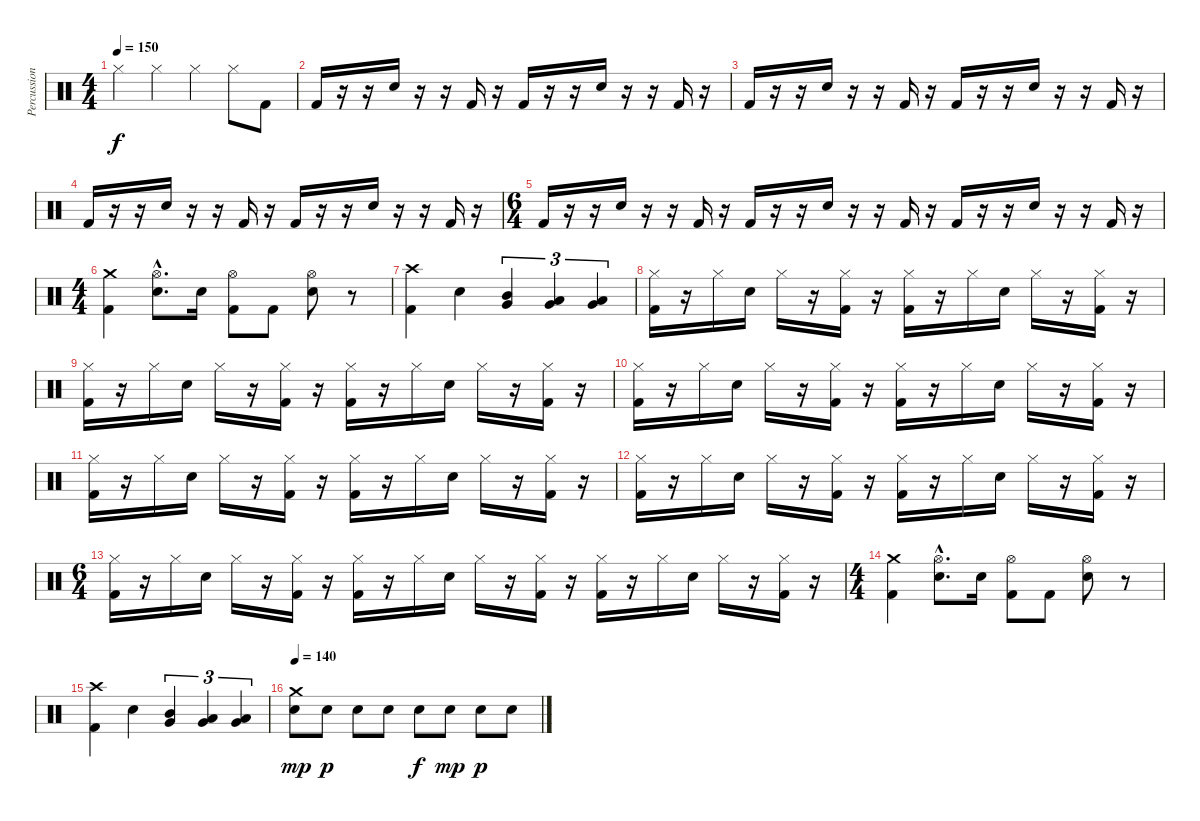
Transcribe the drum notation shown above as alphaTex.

\track ("Percussion" "Percussion") {instrument percussion}
\staff {score}
\articulation defaults
\ts (4 4)
\tempo 150
\clef neutral
\ks c "Hi-Hat (closed)".4{dy f} "Hi-Hat (closed)".4 "Hi-Hat (closed)".4 "Hi-Hat (closed)".8 "Kick (hit) 2".8
|
"Kick (hit) 2".16 r.16 r.16 "Snare (hit) 2".16 r.16 r.16 "Kick (hit) 2".16 r.16 "Kick (hit) 2".16 r.16 r.16 "Snare (hit) 2".16 r.16 r.16 "Kick (hit) 2".16 r.16 |
"Kick (hit) 2".16 r.16 r.16 "Snare (hit) 2".16 r.16 r.16 "Kick (hit) 2".16 r.16 "Kick (hit) 2".16 r.16 r.16 "Snare (hit) 2".16 r.16 r.16 "Kick (hit) 2".16 r.16 |
"Kick (hit) 2".16 r.16 r.16 "Snare (hit) 2".16 r.16 r.16 "Kick (hit) 2".16 r.16 "Kick (hit) 2".16 r.16 r.16 "Snare (hit) 2".16 r.16 r.16 "Kick (hit) 2".16 r.16 |
\ts (6 4)
"Kick (hit) 2".16 r.16 r.16 "Snare (hit) 2".16 r.16 r.16 "Kick (hit) 2".16 r.16 "Kick (hit) 2".16 r.16 r.16 "Snare (hit) 2".16 r.16 r.16 "Kick (hit) 2".16 r.16 "Kick (hit) 2".16 r.16 r.16 "Snare (hit) 2".16 r.16 r.16 "Kick (hit) 2".16 r.16 |
\ts (4 4)
("Crash medium (hit)" "Kick (hit) 2").4 ("Hi-Hat (open)"{hac} "Snare (hit) 2"{hac}).8{d} "Snare (hit) 2".16 ("Hi-Hat (open)" "Kick (hit) 2").8 "Kick (hit) 2".8 ("Hi-Hat (open)" "Snare (hit) 2").8 r.8 |
("Crash high (hit)" "Kick (hit) 2").4 "Snare (hit) 2".4 ("Mid Tom (hit)" "Very Low Tom (hit)").4{tu (3 2)} ("Low Tom (hit)" "Very Low Tom (hit)").4{tu (3 2)} ("Low Tom (hit)" "Very Low Tom (hit)").4{tu (3 2)} |
("Hi-Hat (closed)" "Kick (hit) 2").16 r.16 "Hi-Hat (closed)".16 "Snare (hit) 2".16 "Hi-Hat (closed)".16 r.16 ("Hi-Hat (closed)" "Kick (hit) 2").16 r.16 ("Hi-Hat (closed)" "Kick (hit) 2").16 r.16 "Hi-Hat (closed)".16 "Snare (hit) 2".16 "Hi-Hat (closed)".16 r.16 ("Hi-Hat (closed)" "Kick (hit) 2").16 r.16 |
("Hi-Hat (closed)" "Kick (hit) 2").16 r.16 "Hi-Hat (closed)".16 "Snare (hit) 2".16 "Hi-Hat (closed)".16 r.16 ("Hi-Hat (closed)" "Kick (hit) 2").16 r.16 ("Hi-Hat (closed)" "Kick (hit) 2").16 r.16 "Hi-Hat (closed)".16 "Snare (hit) 2".16 "Hi-Hat (closed)".16 r.16 ("Hi-Hat (closed)" "Kick (hit) 2").16 r.16 |
("Hi-Hat (closed)" "Kick (hit) 2").16 r.16 "Hi-Hat (closed)".16 "Snare (hit) 2".16 "Hi-Hat (closed)".16 r.16 ("Hi-Hat (closed)" "Kick (hit) 2").16 r.16 ("Hi-Hat (closed)" "Kick (hit) 2").16 r.16 "Hi-Hat (closed)".16 "Snare (hit) 2".16 "Hi-Hat (closed)".16 r.16 ("Hi-Hat (closed)" "Kick (hit) 2").16 r.16 |
("Hi-Hat (closed)" "Kick (hit) 2").16 r.16 "Hi-Hat (closed)".16 "Snare (hit) 2".16 "Hi-Hat (closed)".16 r.16 ("Hi-Hat (closed)" "Kick (hit) 2").16 r.16 ("Hi-Hat (closed)" "Kick (hit) 2").16 r.16 "Hi-Hat (closed)".16 "Snare (hit) 2".16 "Hi-Hat (closed)".16 r.16 ("Hi-Hat (closed)" "Kick (hit) 2").16 r.16 |
("Hi-Hat (closed)" "Kick (hit) 2").16 r.16 "Hi-Hat (closed)".16 "Snare (hit) 2".16 "Hi-Hat (closed)".16 r.16 ("Hi-Hat (closed)" "Kick (hit) 2").16 r.16 ("Hi-Hat (closed)" "Kick (hit) 2").16 r.16 "Hi-Hat (closed)".16 "Snare (hit) 2".16 "Hi-Hat (closed)".16 r.16 ("Hi-Hat (closed)" "Kick (hit) 2").16 r.16 |
\ts (6 4)
("Hi-Hat (closed)" "Kick (hit) 2").16 r.16 "Hi-Hat (closed)".16 "Snare (hit) 2".16 "Hi-Hat (closed)".16 r.16 ("Hi-Hat (closed)" "Kick (hit) 2").16 r.16 ("Hi-Hat (closed)" "Kick (hit) 2").16 r.16 "Hi-Hat (closed)".16 "Snare (hit) 2".16 "Hi-Hat (closed)".16 r.16 ("Hi-Hat (closed)" "Kick (hit) 2").16 r.16 ("Hi-Hat (closed)" "Kick (hit) 2").16 r.16 "Hi-Hat (closed)".16 "Snare (hit) 2".16 "Hi-Hat (closed)".16 r.16 ("Hi-Hat (closed)" "Kick (hit) 2").16 r.16 |
\ts (4 4)
("Crash medium (hit)" "Kick (hit) 2").4 ("Hi-Hat (open)"{hac} "Snare (hit) 2"{hac}).8{d} "Snare (hit) 2".16 ("Hi-Hat (open)" "Kick (hit) 2").8 "Kick (hit) 2".8 ("Hi-Hat (open)" "Snare (hit) 2").8 r.8 |
("Crash high (hit)" "Kick (hit) 2").4 "Snare (hit) 2".4 ("Mid Tom (hit)" "Very Low Tom (hit)").4{tu (3 2)} ("Low Tom (hit)" "Very Low Tom (hit)").4{tu (3 2)} ("Low Tom (hit)" "Very Low Tom (hit)").4{tu (3 2)} |
\tempo 140
("Crash medium (hit)" "Snare (hit) 2").8{dy mp} "Snare (hit) 2".8{dy p} "Snare (hit) 2".8 "Snare (hit) 2".8 "Snare (hit) 2".8{dy f} "Snare (hit) 2".8{dy mp} "Snare (hit) 2".8{dy p} "Snare (hit) 2".8
